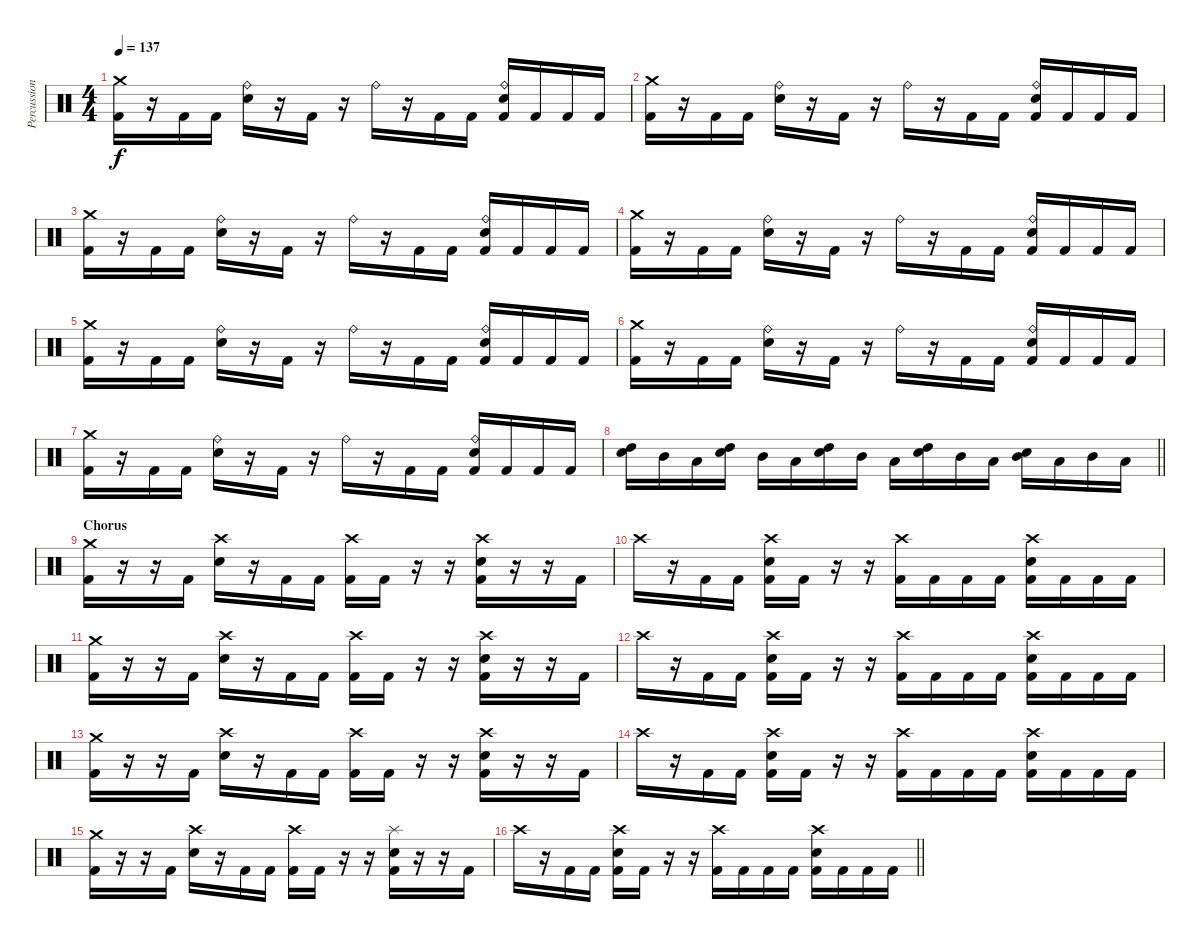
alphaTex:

\track ("Percussion" "Percussion") {instrument percussion}
\staff {score}
\articulation defaults
\ts (4 4)
\tempo 137
\clef neutral
\ks c
("Crash medium (hit)" "Kick (hit) 2").16{dy f} r.16 "Kick (hit) 2".16 "Kick (hit) 2".16 ("Ride (bell)" "Snare (hit) 2").16 r.16 "Kick (hit) 2".16 r.16 "Ride (bell)".16 r.16 "Kick (hit) 2".16 "Kick (hit) 2".16 ("Ride (bell)" "Snare (hit) 2" "Kick (hit) 2").16 "Kick (hit) 2".16 "Kick (hit) 2".16 "Kick (hit) 2".16 |
("Crash medium (hit)" "Kick (hit) 2").16 r.16 "Kick (hit) 2".16 "Kick (hit) 2".16 ("Ride (bell)" "Snare (hit) 2").16 r.16 "Kick (hit) 2".16 r.16 "Ride (bell)".16 r.16 "Kick (hit) 2".16 "Kick (hit) 2".16 ("Ride (bell)" "Snare (hit) 2" "Kick (hit) 2").16 "Kick (hit) 2".16 "Kick (hit) 2".16 "Kick (hit) 2".16 |
("Crash medium (hit)" "Kick (hit) 2").16 r.16 "Kick (hit) 2".16 "Kick (hit) 2".16 ("Ride (bell)" "Snare (hit) 2").16 r.16 "Kick (hit) 2".16 r.16 "Ride (bell)".16 r.16 "Kick (hit) 2".16 "Kick (hit) 2".16 ("Ride (bell)" "Snare (hit) 2" "Kick (hit) 2").16 "Kick (hit) 2".16 "Kick (hit) 2".16 "Kick (hit) 2".16 |
("Crash medium (hit)" "Kick (hit) 2").16 r.16 "Kick (hit) 2".16 "Kick (hit) 2".16 ("Ride (bell)" "Snare (hit) 2").16 r.16 "Kick (hit) 2".16 r.16 "Ride (bell)".16 r.16 "Kick (hit) 2".16 "Kick (hit) 2".16 ("Ride (bell)" "Snare (hit) 2" "Kick (hit) 2").16 "Kick (hit) 2".16 "Kick (hit) 2".16 "Kick (hit) 2".16 |
("Crash medium (hit)" "Kick (hit) 2").16 r.16 "Kick (hit) 2".16 "Kick (hit) 2".16 ("Ride (bell)" "Snare (hit) 2").16 r.16 "Kick (hit) 2".16 r.16 "Ride (bell)".16 r.16 "Kick (hit) 2".16 "Kick (hit) 2".16 ("Ride (bell)" "Snare (hit) 2" "Kick (hit) 2").16 "Kick (hit) 2".16 "Kick (hit) 2".16 "Kick (hit) 2".16 |
("Crash medium (hit)" "Kick (hit) 2").16 r.16 "Kick (hit) 2".16 "Kick (hit) 2".16 ("Ride (bell)" "Snare (hit) 2").16 r.16 "Kick (hit) 2".16 r.16 "Ride (bell)".16 r.16 "Kick (hit) 2".16 "Kick (hit) 2".16 ("Ride (bell)" "Snare (hit) 2" "Kick (hit) 2").16 "Kick (hit) 2".16 "Kick (hit) 2".16 "Kick (hit) 2".16 |
("Crash medium (hit)" "Kick (hit) 2").16 r.16 "Kick (hit) 2".16 "Kick (hit) 2".16 ("Ride (bell)" "Snare (hit) 2").16 r.16 "Kick (hit) 2".16 r.16 "Ride (bell)".16 r.16 "Kick (hit) 2".16 "Kick (hit) 2".16 ("Ride (bell)" "Snare (hit) 2" "Kick (hit) 2").16 "Kick (hit) 2".16 "Kick (hit) 2".16 "Kick (hit) 2".16 |
\barLineRight lightlight
("Snare (hit) 2" "High Tom (hit)").16 "Mid Tom (hit)".16 "Low Tom (hit)".16 ("Snare (hit) 2" "High Tom (hit)").16 "Mid Tom (hit)".16 "Low Tom (hit)".16 ("Snare (hit) 2" "High Tom (hit)").16 "Mid Tom (hit)".16 "Low Tom (hit)".16 ("Snare (hit) 2" "High Tom (hit)").16 "Mid Tom (hit)".16 "Low Tom (hit)".16 ("Snare (hit) 2" "Mid Tom (hit)").16 "Low Tom (hit)".16 "Mid Tom (hit)".16 "Low Tom (hit)".16 |
\section ("" "Chorus")
("Crash medium (hit)" "Kick (hit) 2").16 r.16 r.16 "Kick (hit) 2".16 ("Crash high (hit)" "Snare (hit) 2").16 r.16 "Kick (hit) 2".16 "Kick (hit) 2".16 ("Crash high (hit)" "Kick (hit) 2").16 "Kick (hit) 2".16 r.16 r.16 ("Crash high (hit)" "Snare (hit) 2" "Kick (hit) 2").16 r.16 r.16 "Kick (hit) 2".16 |
"Crash high (hit)".16 r.16 "Kick (hit) 2".16 "Kick (hit) 2".16 ("Crash high (hit)" "Snare (hit) 2" "Kick (hit) 2").16 "Kick (hit) 2".16 r.16 r.16 ("Crash high (hit)" "Kick (hit) 2").16 "Kick (hit) 2".16 "Kick (hit) 2".16 "Kick (hit) 2".16 ("Crash high (hit)" "Snare (hit) 2" "Kick (hit) 2").16 "Kick (hit) 2".16 "Kick (hit) 2".16 "Kick (hit) 2".16 |
("Crash medium (hit)" "Kick (hit) 2").16 r.16 r.16 "Kick (hit) 2".16 ("Crash high (hit)" "Snare (hit) 2").16 r.16 "Kick (hit) 2".16 "Kick (hit) 2".16 ("Crash high (hit)" "Kick (hit) 2").16 "Kick (hit) 2".16 r.16 r.16 ("Crash high (hit)" "Snare (hit) 2" "Kick (hit) 2").16 r.16 r.16 "Kick (hit) 2".16 |
"Crash high (hit)".16 r.16 "Kick (hit) 2".16 "Kick (hit) 2".16 ("Crash high (hit)" "Snare (hit) 2" "Kick (hit) 2").16 "Kick (hit) 2".16 r.16 r.16 ("Crash high (hit)" "Kick (hit) 2").16 "Kick (hit) 2".16 "Kick (hit) 2".16 "Kick (hit) 2".16 ("Crash high (hit)" "Snare (hit) 2" "Kick (hit) 2").16 "Kick (hit) 2".16 "Kick (hit) 2".16 "Kick (hit) 2".16 |
("Crash medium (hit)" "Kick (hit) 2").16 r.16 r.16 "Kick (hit) 2".16 ("Crash high (hit)" "Snare (hit) 2").16 r.16 "Kick (hit) 2".16 "Kick (hit) 2".16 ("Crash high (hit)" "Kick (hit) 2").16 "Kick (hit) 2".16 r.16 r.16 ("Crash high (hit)" "Snare (hit) 2" "Kick (hit) 2").16 r.16 r.16 "Kick (hit) 2".16 |
"Crash high (hit)".16 r.16 "Kick (hit) 2".16 "Kick (hit) 2".16 ("Crash high (hit)" "Snare (hit) 2" "Kick (hit) 2").16 "Kick (hit) 2".16 r.16 r.16 ("Crash high (hit)" "Kick (hit) 2").16 "Kick (hit) 2".16 "Kick (hit) 2".16 "Kick (hit) 2".16 ("Crash high (hit)" "Snare (hit) 2" "Kick (hit) 2").16 "Kick (hit) 2".16 "Kick (hit) 2".16 "Kick (hit) 2".16 |
("Crash medium (hit)" "Kick (hit) 2").16 r.16 r.16 "Kick (hit) 2".16 ("Crash high (hit)" "Snare (hit) 2").16 r.16 "Kick (hit) 2".16 "Kick (hit) 2".16 ("Crash high (hit)" "Kick (hit) 2").16 "Kick (hit) 2".16 r.16 r.16 ("Splash (hit)" "Snare (hit) 2" "Kick (hit) 2").16 r.16 r.16 "Kick (hit) 2".16 |
\barLineRight lightlight "Crash high (hit)".16
r.16 "Kick (hit) 2".16 "Kick (hit) 2".16 ("Crash high (hit)" "Snare (hit) 2" "Kick (hit) 2").16 "Kick (hit) 2".16 r.16 r.16 ("Crash high (hit)" "Kick (hit) 2").16 "Kick (hit) 2".16 "Kick (hit) 2".16 "Kick (hit) 2".16 ("Crash high (hit)" "Snare (hit) 2" "Kick (hit) 2").16 "Kick (hit) 2".16 "Kick (hit) 2".16 "Kick (hit) 2".16
